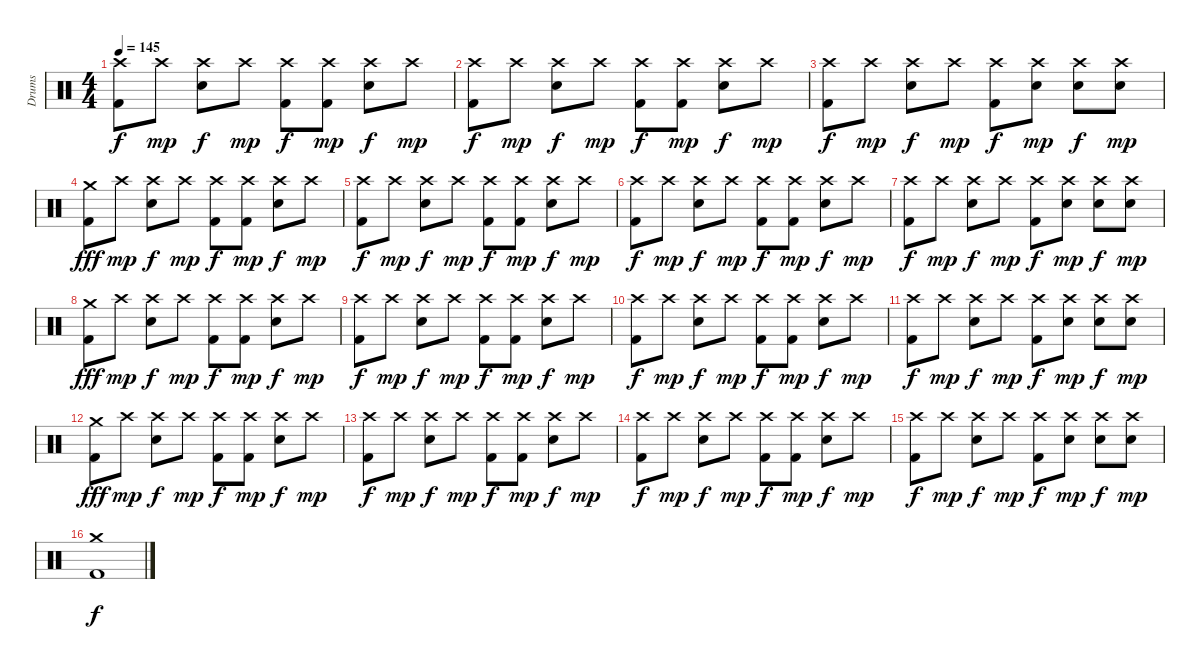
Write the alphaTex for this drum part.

\track ("Drums" "Drums") {instrument percussion}
\staff {score}
\articulation defaults
\ts (4 4)
\tempo 145
\clef neutral
\ks c
("Crash high (hit)" "Kick (hit) 2").8{dy f} "Crash high (hit)".8{dy mp} ("Crash high (hit)" "Snare (hit) 2").8{dy f} "Crash high (hit)".8{dy mp} ("Crash high (hit)" "Kick (hit) 2").8{dy f} ("Crash high (hit)" "Kick (hit) 2").8{dy mp} ("Crash high (hit)" "Snare (hit) 2").8{dy f} "Crash high (hit)".8{dy mp} |
("Crash high (hit)" "Kick (hit) 2").8{dy f} "Crash high (hit)".8{dy mp} ("Crash high (hit)" "Snare (hit) 2").8{dy f} "Crash high (hit)".8{dy mp} ("Crash high (hit)" "Kick (hit) 2").8{dy f} ("Crash high (hit)" "Kick (hit) 2").8{dy mp} ("Crash high (hit)" "Snare (hit) 2").8{dy f} "Crash high (hit)".8{dy mp} |
("Crash high (hit)" "Kick (hit) 2").8{dy f} "Crash high (hit)".8{dy mp} ("Crash high (hit)" "Snare (hit) 2").8{dy f} "Crash high (hit)".8{dy mp} ("Crash high (hit)" "Kick (hit) 2").8{dy f} ("Crash high (hit)" "Snare (hit) 2").8{dy mp} ("Crash high (hit)" "Snare (hit) 2").8{dy f} ("Crash high (hit)" "Snare (hit) 2").8{dy mp} |
("Crash medium (hit)" "Kick (hit) 2").8{dy fff} "Crash high (hit)".8{dy mp} ("Crash high (hit)" "Snare (hit) 2").8{dy f} "Crash high (hit)".8{dy mp} ("Crash high (hit)" "Kick (hit) 2").8{dy f} ("Crash high (hit)" "Kick (hit) 2").8{dy mp} ("Crash high (hit)" "Snare (hit) 2").8{dy f} "Crash high (hit)".8{dy mp} |
("Crash high (hit)" "Kick (hit) 2").8{dy f} "Crash high (hit)".8{dy mp} ("Crash high (hit)" "Snare (hit) 2").8{dy f} "Crash high (hit)".8{dy mp} ("Crash high (hit)" "Kick (hit) 2").8{dy f} ("Crash high (hit)" "Kick (hit) 2").8{dy mp} ("Crash high (hit)" "Snare (hit) 2").8{dy f} "Crash high (hit)".8{dy mp} |
("Crash high (hit)" "Kick (hit) 2").8{dy f} "Crash high (hit)".8{dy mp} ("Crash high (hit)" "Snare (hit) 2").8{dy f} "Crash high (hit)".8{dy mp} ("Crash high (hit)" "Kick (hit) 2").8{dy f} ("Crash high (hit)" "Kick (hit) 2").8{dy mp} ("Crash high (hit)" "Snare (hit) 2").8{dy f} "Crash high (hit)".8{dy mp} |
("Crash high (hit)" "Kick (hit) 2").8{dy f} "Crash high (hit)".8{dy mp} ("Crash high (hit)" "Snare (hit) 2").8{dy f} "Crash high (hit)".8{dy mp} ("Crash high (hit)" "Kick (hit) 2").8{dy f} ("Crash high (hit)" "Snare (hit) 2").8{dy mp} ("Crash high (hit)" "Snare (hit) 2").8{dy f} ("Crash high (hit)" "Snare (hit) 2").8{dy mp} |
("Crash medium (hit)" "Kick (hit) 2").8{dy fff} "Crash high (hit)".8{dy mp} ("Crash high (hit)" "Snare (hit) 2").8{dy f} "Crash high (hit)".8{dy mp} ("Crash high (hit)" "Kick (hit) 2").8{dy f} ("Crash high (hit)" "Kick (hit) 2").8{dy mp} ("Crash high (hit)" "Snare (hit) 2").8{dy f} "Crash high (hit)".8{dy mp} |
("Crash high (hit)" "Kick (hit) 2").8{dy f} "Crash high (hit)".8{dy mp} ("Crash high (hit)" "Snare (hit) 2").8{dy f} "Crash high (hit)".8{dy mp} ("Crash high (hit)" "Kick (hit) 2").8{dy f} ("Crash high (hit)" "Kick (hit) 2").8{dy mp} ("Crash high (hit)" "Snare (hit) 2").8{dy f} "Crash high (hit)".8{dy mp} |
("Crash high (hit)" "Kick (hit) 2").8{dy f} "Crash high (hit)".8{dy mp} ("Crash high (hit)" "Snare (hit) 2").8{dy f} "Crash high (hit)".8{dy mp} ("Crash high (hit)" "Kick (hit) 2").8{dy f} ("Crash high (hit)" "Kick (hit) 2").8{dy mp} ("Crash high (hit)" "Snare (hit) 2").8{dy f} "Crash high (hit)".8{dy mp} |
("Crash high (hit)" "Kick (hit) 2").8{dy f} "Crash high (hit)".8{dy mp} ("Crash high (hit)" "Snare (hit) 2").8{dy f} "Crash high (hit)".8{dy mp} ("Crash high (hit)" "Kick (hit) 2").8{dy f} ("Crash high (hit)" "Snare (hit) 2").8{dy mp} ("Crash high (hit)" "Snare (hit) 2").8{dy f} ("Crash high (hit)" "Snare (hit) 2").8{dy mp} |
("Crash medium (hit)" "Kick (hit) 2").8{dy fff} "Crash high (hit)".8{dy mp} ("Crash high (hit)" "Snare (hit) 2").8{dy f} "Crash high (hit)".8{dy mp} ("Crash high (hit)" "Kick (hit) 2").8{dy f} ("Crash high (hit)" "Kick (hit) 2").8{dy mp} ("Crash high (hit)" "Snare (hit) 2").8{dy f} "Crash high (hit)".8{dy mp} |
("Crash high (hit)" "Kick (hit) 2").8{dy f} "Crash high (hit)".8{dy mp} ("Crash high (hit)" "Snare (hit) 2").8{dy f} "Crash high (hit)".8{dy mp} ("Crash high (hit)" "Kick (hit) 2").8{dy f} ("Crash high (hit)" "Kick (hit) 2").8{dy mp} ("Crash high (hit)" "Snare (hit) 2").8{dy f} "Crash high (hit)".8{dy mp} |
("Crash high (hit)" "Kick (hit) 2").8{dy f} "Crash high (hit)".8{dy mp} ("Crash high (hit)" "Snare (hit) 2").8{dy f} "Crash high (hit)".8{dy mp} ("Crash high (hit)" "Kick (hit) 2").8{dy f} ("Crash high (hit)" "Kick (hit) 2").8{dy mp} ("Crash high (hit)" "Snare (hit) 2").8{dy f} "Crash high (hit)".8{dy mp} |
("Crash high (hit)" "Kick (hit) 2").8{dy f} "Crash high (hit)".8{dy mp} ("Crash high (hit)" "Snare (hit) 2").8{dy f} "Crash high (hit)".8{dy mp} ("Crash high (hit)" "Kick (hit) 2").8{dy f} ("Crash high (hit)" "Snare (hit) 2").8{dy mp} ("Crash high (hit)" "Snare (hit) 2").8{dy f} ("Crash high (hit)" "Snare (hit) 2").8{dy mp} |
("Crash medium (hit)" "Kick (hit) 2").1{dy f}
